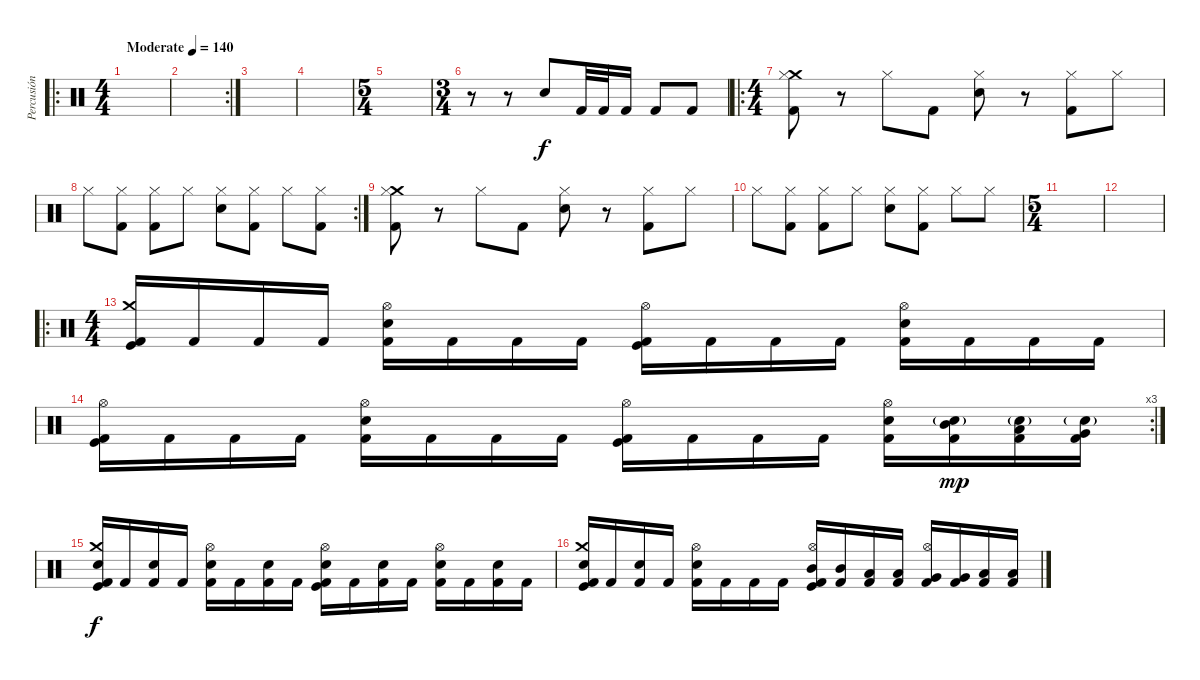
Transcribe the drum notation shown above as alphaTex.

\track ("Percusión" "Percusión") {instrument percussion}
\staff {score}
\articulation defaults
\ro
\ts (4 4)
\tempo (140 "Moderate")
\clef neutral
\ks c
|
\rc 2
|
|
|
\ts (5 4)
|
\ts (3 4)
r.8 r.8 "Electric Snare (hit)".8 "Kick (hit) 2".32 "Kick (hit) 2".32 "Kick (hit) 2".16 "Kick (hit) 2".8 "Kick (hit) 2".8 |
\ro
\ts (4 4)
("Kick (hit) 2" "Crash medium (hit)" "Hi-Hat (closed)").8 r.8 "Hi-Hat (closed)".8 "Kick (hit) 2".8 ("Electric Snare (hit)" "Hi-Hat (closed)").8 r.8 ("Kick (hit) 2" "Hi-Hat (closed)").8 "Hi-Hat (closed)".8 |
\rc 2 "Hi-Hat (closed)".8
("Kick (hit) 2" "Hi-Hat (closed)").8 ("Kick (hit) 2" "Hi-Hat (closed)").8 "Hi-Hat (closed)".8 ("Electric Snare (hit)" "Hi-Hat (closed)").8 ("Kick (hit) 2" "Hi-Hat (closed)").8 "Hi-Hat (closed)".8 ("Kick (hit) 2" "Hi-Hat (closed)").8 |
("Kick (hit) 2" "Crash medium (hit)" "Hi-Hat (closed)").8 r.8 "Hi-Hat (closed)".8 "Kick (hit) 2".8 ("Electric Snare (hit)" "Hi-Hat (closed)").8 r.8 ("Kick (hit) 2" "Hi-Hat (closed)").8 "Hi-Hat (closed)".8 |
"Hi-Hat (closed)".8 ("Kick (hit) 2" "Hi-Hat (closed)").8 ("Kick (hit) 2" "Hi-Hat (closed)").8 "Hi-Hat (closed)".8 ("Electric Snare (hit)" "Hi-Hat (closed)").8 ("Kick (hit) 2" "Hi-Hat (closed)").8 "Hi-Hat (closed)".8 "Hi-Hat (closed)".8 |
\ts (5 4)
|
|
\ro
\ts (4 4)
("Crash medium (hit)" "Kick (hit)" "Kick (hit) 2").16 "Kick (hit) 2".16 "Kick (hit) 2".16 "Kick (hit) 2".16 ("Hi-Hat (open)" "Electric Snare (hit)" "Kick (hit) 2").16 "Kick (hit) 2".16 "Kick (hit) 2".16 "Kick (hit) 2".16 ("Hi-Hat (open)" "Kick (hit)" "Kick (hit) 2").16 "Kick (hit) 2".16 "Kick (hit) 2".16 "Kick (hit) 2".16 ("Hi-Hat (open)" "Electric Snare (hit)" "Kick (hit) 2").16 "Kick (hit) 2".16 "Kick (hit) 2".16 "Kick (hit) 2".16 |
\rc 3
("Hi-Hat (open)" "Kick (hit)" "Kick (hit) 2").16 "Kick (hit) 2".16 "Kick (hit) 2".16 "Kick (hit) 2".16 ("Hi-Hat (open)" "Electric Snare (hit)" "Kick (hit) 2").16 "Kick (hit) 2".16 "Kick (hit) 2".16 "Kick (hit) 2".16 ("Hi-Hat (open)" "Kick (hit)" "Kick (hit) 2").16 "Kick (hit) 2".16 "Kick (hit) 2".16 "Kick (hit) 2".16 ("Hi-Hat (open)" "Electric Snare (hit)" "Kick (hit) 2").16 ("Electric Snare (hit)"{g} "Mid Tom (hit)" "Kick (hit) 2").16{dy mp} ("Electric Snare (hit)"{g} "Low Tom (hit)" "Kick (hit) 2").16 ("Electric Snare (hit)"{g} "Very Low Tom (hit)" "Kick (hit) 2").16 |
("Crash medium (hit)" "Electric Snare (hit)" "Kick (hit)" "Kick (hit) 2").16{dy f} "Kick (hit) 2".16 ("Electric Snare (hit)" "Kick (hit) 2").16 "Kick (hit) 2".16 ("Hi-Hat (open)" "Electric Snare (hit)" "Kick (hit) 2").16 "Kick (hit) 2".16 ("Electric Snare (hit)" "Kick (hit) 2").16 "Kick (hit) 2".16 ("Hi-Hat (open)" "Electric Snare (hit)" "Kick (hit)" "Kick (hit) 2").16 "Kick (hit) 2".16 ("Electric Snare (hit)" "Kick (hit) 2").16 "Kick (hit) 2".16 ("Hi-Hat (open)" "Electric Snare (hit)" "Kick (hit) 2").16 "Kick (hit) 2".16 ("Electric Snare (hit)" "Kick (hit) 2").16 "Kick (hit) 2".16 |
("Crash medium (hit)" "Electric Snare (hit)" "Kick (hit)" "Kick (hit) 2").16 "Kick (hit) 2".16 ("Electric Snare (hit)" "Kick (hit) 2").16 "Kick (hit) 2".16 ("Hi-Hat (open)" "Electric Snare (hit)" "Kick (hit) 2").16 "Kick (hit) 2".16 "Kick (hit) 2".16 "Kick (hit) 2".16 ("Hi-Hat (open)" "Mid Tom (hit)" "Kick (hit)" "Kick (hit) 2").16 ("Mid Tom (hit)" "Kick (hit) 2").16 ("Low Tom (hit)" "Kick (hit) 2").16 ("Low Tom (hit)" "Kick (hit) 2").16 ("Hi-Hat (open)" "Very Low Tom (hit)" "Kick (hit) 2").16 ("Very Low Tom (hit)" "Kick (hit) 2").16 ("Low Floor Tom (hit)" "Kick (hit) 2").16 ("Low Floor Tom (hit)" "Kick (hit) 2").16
